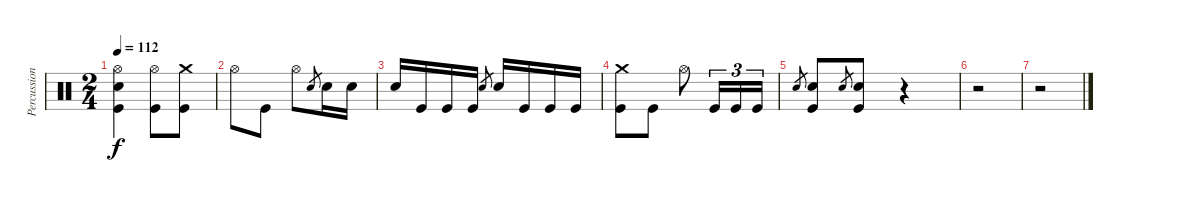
\track ("Percussion" "Percussion") {instrument percussion}
\staff {score}
\articulation defaults
\ts (2 4)
\tempo 112
\clef neutral
\ks c
("Hi-Hat (open)" "Electric Snare (hit)" "Kick (hit)").4{dy f} ("Hi-Hat (open)" "Kick (hit)").8 ("Crash medium (hit)" "Kick (hit)").8 |
"Hi-Hat (open)".8 "Kick (hit)".8 "Hi-Hat (open)".8 "Electric Snare (hit)".8{gr} "Electric Snare (hit)".16 "Electric Snare (hit)".16 |
"Electric Snare (hit)".16 "Kick (hit)".16 "Kick (hit)".16 "Kick (hit)".16 "Electric Snare (hit)".8{gr} "Electric Snare (hit)".16 "Kick (hit)".16 "Kick (hit)".16 "Kick (hit)".16 |
("Crash medium (hit)" "Kick (hit)").8 "Kick (hit)".8 "Hi-Hat (open)".8 "Kick (hit)".16{tu (3 2)} "Kick (hit)".16{tu (3 2)} "Kick (hit)".16{tu (3 2)} |
"Electric Snare (hit)".8{gr} ("Electric Snare (hit)" "Kick (hit)").8 "Electric Snare (hit)".8{gr} ("Electric Snare (hit)" "Kick (hit)").8 r.4 |
r.2 |
r.2
